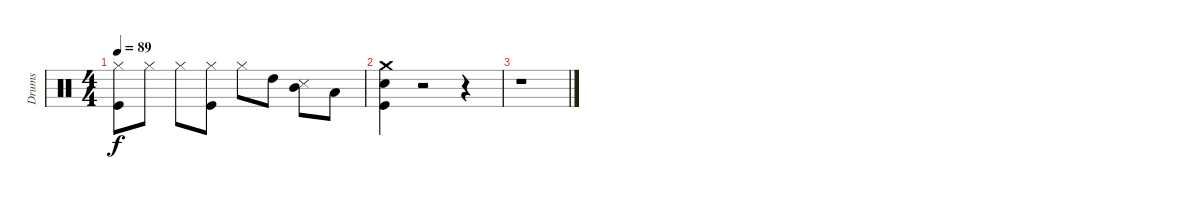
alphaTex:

\track ("Drums" "Drums") {instrument percussion}
\staff {score}
\articulation defaults
\ts (4 4)
\tempo 89
\clef neutral
\ks c
("Hi-Hat (closed)" "Kick (hit)").8{dy f} "Hi-Hat (closed)".8 "Hi-Hat (closed)".8 ("Hi-Hat (closed)" "Kick (hit)").8 "Hi-Hat (closed)".8 "High Tom (hit)".8 ("Mid Tom (hit)" "Snare (side stick) 3").8 "Low Tom (hit)".8 |
("Snare (hit)" "Kick (hit)" "Crash medium (hit)").4 r.2 r.4 |
r.1
